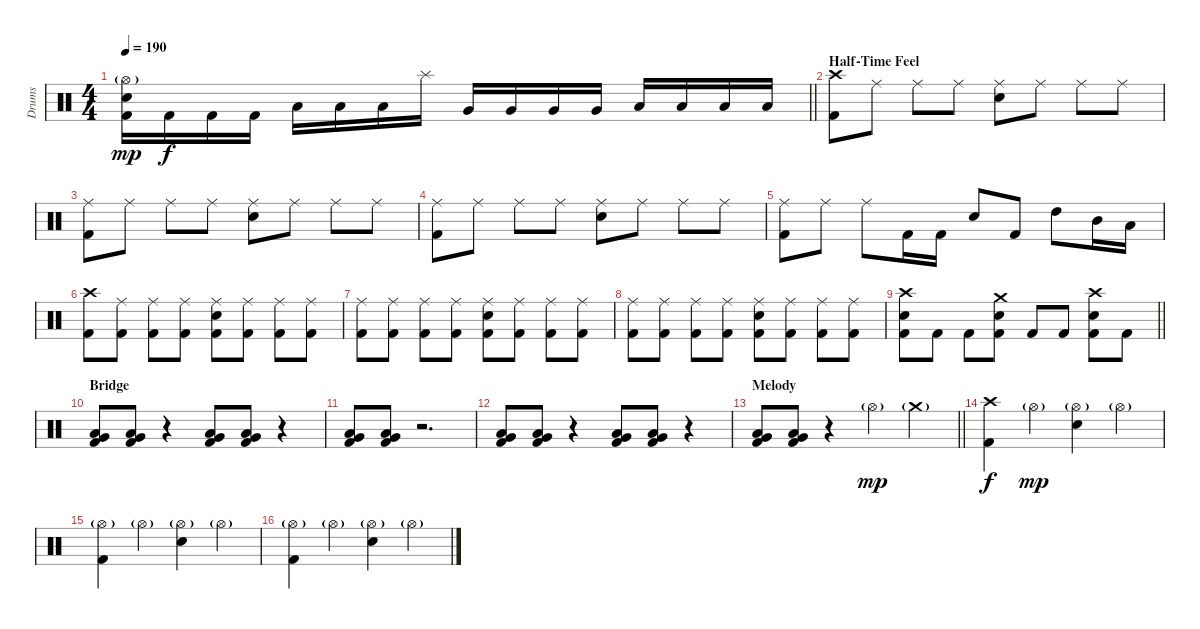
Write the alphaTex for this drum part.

\track ("Drums" "Drums") {instrument percussion}
\staff {score}
\articulation defaults
\ts (4 4)
\tempo 190
\clef neutral
\barLineRight lightlight
\ks c
("Hi-Hat (open)"{g} "Electric Snare (hit)" "Kick (hit) 2").16{dy mp} "Kick (hit) 2".16{dy f} "Kick (hit) 2".16 "Kick (hit) 2".16 "Low Tom (hit)".16 "Low Tom (hit)".16 "Low Tom (hit)".16 "Splash (hit)".16 "Very Low Tom (hit)".16 "Very Low Tom (hit)".16 "Very Low Tom (hit)".16 "Very Low Tom (hit)".16 "Low Floor Tom (hit)".16 "Low Floor Tom (hit)".16 "Low Floor Tom (hit)".16 "Low Floor Tom (hit)".16 |
\section ("" "Half-Time Feel")
("Crash high (hit)" "Kick (hit) 2").8 "Ride (middle)".8 "Ride (middle)".8 "Ride (middle)".8 ("Ride (middle)" "Electric Snare (hit)").8 "Ride (middle)".8 "Ride (middle)".8 "Ride (middle)".8 |
("Ride (middle)" "Kick (hit) 2").8 "Ride (middle)".8 "Ride (middle)".8 "Ride (middle)".8 ("Ride (middle)" "Electric Snare (hit)").8 "Ride (middle)".8 "Ride (middle)".8 "Ride (middle)".8 |
("Ride (middle)" "Kick (hit) 2").8 "Ride (middle)".8 "Ride (middle)".8 "Ride (middle)".8 ("Ride (middle)" "Electric Snare (hit)").8 "Ride (middle)".8 "Ride (middle)".8 "Ride (middle)".8 |
("Ride (middle)" "Kick (hit) 2").8 "Ride (middle)".8 "Ride (middle)".8 "Kick (hit) 2".16 "Kick (hit) 2".16 "Electric Snare (hit)".8 "Kick (hit) 2".8 "High Tom (hit)".8 "Mid Tom (hit)".16 "Low Tom (hit)".16 |
("Crash high (hit)" "Kick (hit) 2").8 ("Ride (middle)" "Kick (hit) 2").8 ("Ride (middle)" "Kick (hit) 2").8 ("Ride (middle)" "Kick (hit) 2").8 ("Ride (middle)" "Electric Snare (hit)" "Kick (hit) 2").8 ("Ride (middle)" "Kick (hit) 2").8 ("Ride (middle)" "Kick (hit) 2").8 ("Ride (middle)" "Kick (hit) 2").8 |
("Ride (middle)" "Kick (hit) 2").8 ("Ride (middle)" "Kick (hit) 2").8 ("Ride (middle)" "Kick (hit) 2").8 ("Ride (middle)" "Kick (hit) 2").8 ("Ride (middle)" "Electric Snare (hit)" "Kick (hit) 2").8 ("Ride (middle)" "Kick (hit) 2").8 ("Ride (middle)" "Kick (hit) 2").8 ("Ride (middle)" "Kick (hit) 2").8 |
("Ride (middle)" "Kick (hit) 2").8 ("Ride (middle)" "Kick (hit) 2").8 ("Ride (middle)" "Kick (hit) 2").8 ("Ride (middle)" "Kick (hit) 2").8 ("Ride (middle)" "Electric Snare (hit)" "Kick (hit) 2").8 ("Ride (middle)" "Kick (hit) 2").8 ("Ride (middle)" "Kick (hit) 2").8 ("Ride (middle)" "Kick (hit) 2").8 |
\barLineRight lightlight
("Crash high (hit)" "Electric Snare (hit)" "Kick (hit) 2").8 "Kick (hit) 2".8 "Kick (hit) 2".8 ("Crash medium (hit)" "Electric Snare (hit)" "Kick (hit) 2").8 "Kick (hit) 2".8 "Kick (hit) 2".8 ("Crash high (hit)" "Electric Snare (hit)" "Kick (hit) 2").8 "Kick (hit) 2".8 |
\section ("" "Bridge")
("Very Low Tom (hit)" "Low Floor Tom (hit)" "Kick (hit) 2").8 ("Very Low Tom (hit)" "Low Floor Tom (hit)" "Kick (hit) 2").8 r.4 ("Very Low Tom (hit)" "Low Floor Tom (hit)" "Kick (hit) 2").8 ("Very Low Tom (hit)" "Low Floor Tom (hit)" "Kick (hit) 2").8 r.4 |
("Very Low Tom (hit)" "Low Floor Tom (hit)" "Kick (hit) 2").8 ("Very Low Tom (hit)" "Low Floor Tom (hit)" "Kick (hit) 2").8 r.2{d} |
("Very Low Tom (hit)" "Low Floor Tom (hit)" "Kick (hit) 2").8 ("Very Low Tom (hit)" "Low Floor Tom (hit)" "Kick (hit) 2").8 r.4 ("Very Low Tom (hit)" "Low Floor Tom (hit)" "Kick (hit) 2").8 ("Very Low Tom (hit)" "Low Floor Tom (hit)" "Kick (hit) 2").8 r.4 |
\section ("" "Melody")
\barLineRight lightlight
("Very Low Tom (hit)" "Low Floor Tom (hit)" "Kick (hit) 2").8 ("Very Low Tom (hit)" "Low Floor Tom (hit)" "Kick (hit) 2").8 r.4 "Hi-Hat (open)"{g}.4{dy mp} "Crash medium (hit)"{g}.4 |
("Crash high (hit)" "Kick (hit) 2").4{dy f} "Hi-Hat (open)"{g}.4{dy mp} ("Hi-Hat (open)"{g} "Electric Snare (hit)").4 "Hi-Hat (open)"{g}.4 |
("Hi-Hat (open)"{g} "Kick (hit) 2").4 "Hi-Hat (open)"{g}.4 ("Hi-Hat (open)"{g} "Electric Snare (hit)").4 "Hi-Hat (open)"{g}.4 |
("Hi-Hat (open)"{g} "Kick (hit) 2").4 "Hi-Hat (open)"{g}.4 ("Hi-Hat (open)"{g} "Electric Snare (hit)").4 "Hi-Hat (open)"{g}.4
